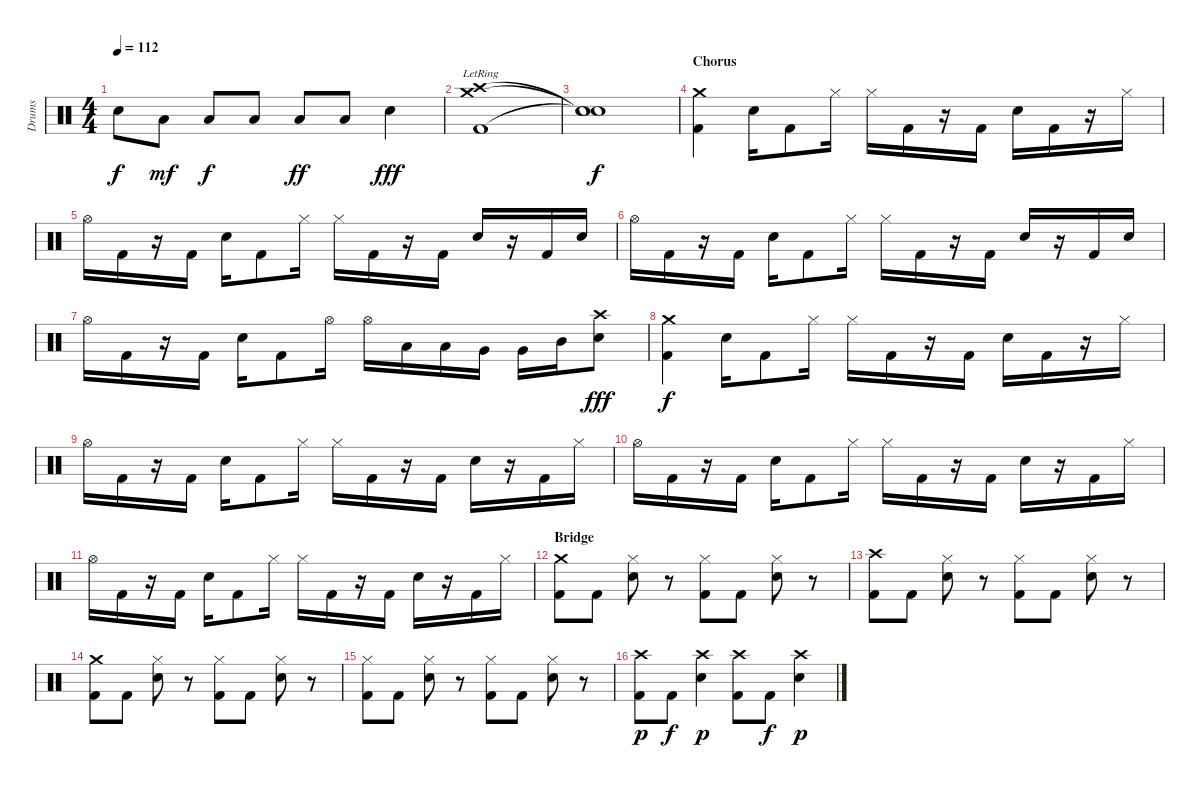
\track ("Drums" "Drums") {instrument percussion}
\staff {score}
\articulation defaults
\ts (4 4)
\tempo 112
\clef neutral
\ks c "Electric Snare (hit)".8{dy f} "Low Floor Tom (hit)".8{dy mf} "Low Floor Tom (hit)".8{dy f} "Low Floor Tom (hit)".8 "Low Floor Tom (hit)".8{dy ff} "Low Floor Tom (hit)".8 "Electric Snare (hit)".4{dy fff}
|
("Crash medium (hit)"{lr} "Crash high (hit)"{lr} "Kick (hit) 2"{lr}).1 |
("Snare (hit)"{t} "Snare (hit)"{t} "Snare (hit)"{t}).1{dy f} |
\section ("" "Chorus")
("Crash medium (hit)" "Kick (hit) 2").4 "Electric Snare (hit)".16 "Kick (hit) 2".8 "Hi-Hat (closed)".16 "Hi-Hat (closed)".16 "Kick (hit) 2".16 r.16 "Kick (hit) 2".16 "Electric Snare (hit)".16 "Kick (hit) 2".16 r.16 "Hi-Hat (closed)".16 |
"Hi-Hat (open)".16 "Kick (hit) 2".16 r.16 "Kick (hit) 2".16 "Electric Snare (hit)".16 "Kick (hit) 2".8 "Hi-Hat (closed)".16 "Hi-Hat (closed)".16 "Kick (hit) 2".16 r.16 "Kick (hit) 2".16 "Electric Snare (hit)".16 r.16 "Kick (hit) 2".16 "Electric Snare (hit)".16 |
"Hi-Hat (open)".16 "Kick (hit) 2".16 r.16 "Kick (hit) 2".16 "Electric Snare (hit)".16 "Kick (hit) 2".8 "Hi-Hat (closed)".16 "Hi-Hat (closed)".16 "Kick (hit) 2".16 r.16 "Kick (hit) 2".16 "Electric Snare (hit)".16 r.16 "Kick (hit) 2".16 "Electric Snare (hit)".16 |
"Hi-Hat (open)".16 "Kick (hit) 2".16 r.16 "Kick (hit) 2".16 "Electric Snare (hit)".16 "Kick (hit) 2".8 "Hi-Hat (open)".16 "Hi-Hat (open)".16 "Low Floor Tom (hit)".16 "Low Floor Tom (hit)".16 "Very Low Tom (hit)".16 "Very Low Tom (hit)".16 "Mid Tom (hit)".16 ("Crash high (hit)" "Electric Snare (hit)").8{dy fff} |
("Crash medium (hit)" "Kick (hit) 2").4{dy f} "Electric Snare (hit)".16 "Kick (hit) 2".8 "Hi-Hat (closed)".16 "Hi-Hat (closed)".16 "Kick (hit) 2".16 r.16 "Kick (hit) 2".16 "Electric Snare (hit)".16 "Kick (hit) 2".16 r.16 "Hi-Hat (closed)".16 |
"Hi-Hat (open)".16 "Kick (hit) 2".16 r.16 "Kick (hit) 2".16 "Electric Snare (hit)".16 "Kick (hit) 2".8 "Hi-Hat (closed)".16 "Hi-Hat (closed)".16 "Kick (hit) 2".16 r.16 "Kick (hit) 2".16 "Electric Snare (hit)".16 r.16 "Kick (hit) 2".16 "Hi-Hat (closed)".16 |
"Hi-Hat (open)".16 "Kick (hit) 2".16 r.16 "Kick (hit) 2".16 "Electric Snare (hit)".16 "Kick (hit) 2".8 "Hi-Hat (closed)".16 "Hi-Hat (closed)".16 "Kick (hit) 2".16 r.16 "Kick (hit) 2".16 "Electric Snare (hit)".16 r.16 "Kick (hit) 2".16 "Hi-Hat (closed)".16 |
"Hi-Hat (open)".16 "Kick (hit) 2".16 r.16 "Kick (hit) 2".16 "Electric Snare (hit)".16 "Kick (hit) 2".8 "Hi-Hat (closed)".16 "Hi-Hat (closed)".16 "Kick (hit) 2".16 r.16 "Kick (hit) 2".16 "Electric Snare (hit)".16 r.16 "Kick (hit) 2".16 "Hi-Hat (closed)".16 |
\section ("" "Bridge")
("Crash medium (hit)" "Kick (hit) 2").8 "Kick (hit) 2".8 ("Hi-Hat (closed)" "Electric Snare (hit)").8 r.8 ("Hi-Hat (closed)" "Kick (hit) 2").8 "Kick (hit) 2".8 ("Hi-Hat (closed)" "Electric Snare (hit)").8 r.8 |
("Crash high (hit)" "Kick (hit) 2").8 "Kick (hit) 2".8 ("Hi-Hat (closed)" "Electric Snare (hit)").8 r.8 ("Hi-Hat (closed)" "Kick (hit) 2").8 "Kick (hit) 2".8 ("Hi-Hat (closed)" "Electric Snare (hit)").8 r.8 |
("Crash medium (hit)" "Kick (hit) 2").8 "Kick (hit) 2".8 ("Hi-Hat (closed)" "Electric Snare (hit)").8 r.8 ("Hi-Hat (closed)" "Kick (hit) 2").8 "Kick (hit) 2".8 ("Hi-Hat (closed)" "Electric Snare (hit)").8 r.8 |
("Hi-Hat (closed)" "Kick (hit) 2").8 "Kick (hit) 2".8 ("Hi-Hat (closed)" "Electric Snare (hit)").8 r.8 ("Hi-Hat (closed)" "Kick (hit) 2").8 "Kick (hit) 2".8 ("Hi-Hat (closed)" "Electric Snare (hit)").8 r.8 |
("Crash high (hit)" "Kick (hit) 2").8{dy p} "Kick (hit) 2".8{dy f} ("Crash high (hit)" "Electric Snare (hit)").4{dy p} ("Crash high (hit)" "Kick (hit) 2").8 "Kick (hit) 2".8{dy f} ("Crash high (hit)" "Electric Snare (hit)").4{dy p}
